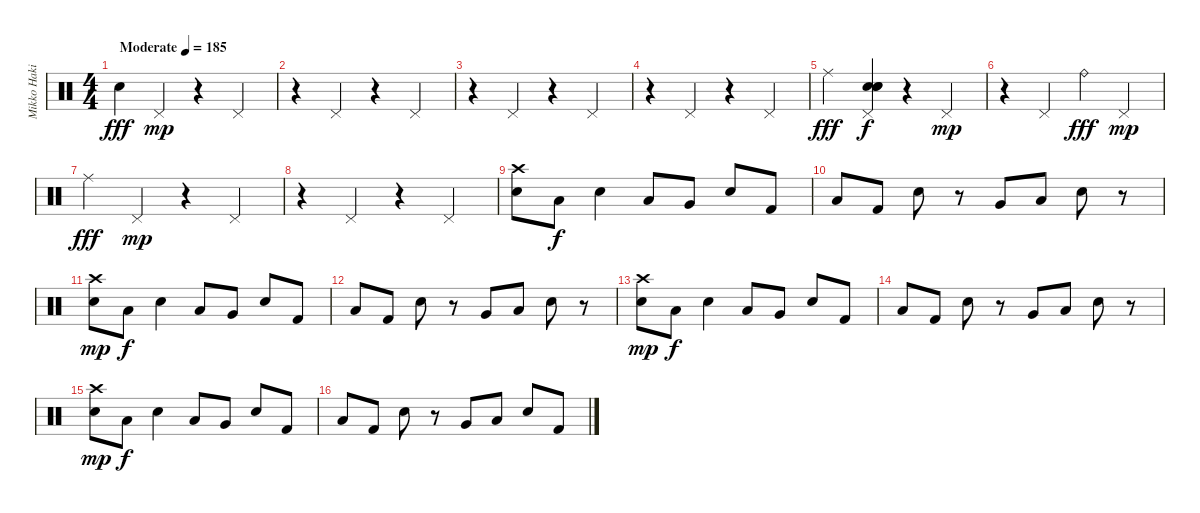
\track ("Mikko Hakila" "Mikko Haki") {instrument percussion}
\staff {score}
\articulation defaults
\ts (4 4)
\tempo (185 "Moderate")
\clef neutral
\ks c "Snare (hit) 2".4{dy fff} "Pedal Hi-Hat (hit)".4{dy mp}
r.4 "Pedal Hi-Hat (hit)".4 |
r.4 "Pedal Hi-Hat (hit)".4 r.4 "Pedal Hi-Hat (hit)".4 |
r.4 "Pedal Hi-Hat (hit)".4 r.4 "Pedal Hi-Hat (hit)".4 |
r.4 "Pedal Hi-Hat (hit)".4 r.4 "Pedal Hi-Hat (hit)".4 |
"Ride (middle)".4{dy fff} ("Pedal Hi-Hat (hit)" "Snare (hit)" "Snare (hit)" "Snare (hit)").4{dy f} r.4 "Pedal Hi-Hat (hit)".4{dy mp} |
r.4 "Pedal Hi-Hat (hit)".4 "Ride (bell)".4{dy fff} "Pedal Hi-Hat (hit)".4{dy mp} |
"Ride (middle)".4{dy fff} "Pedal Hi-Hat (hit)".4{dy mp} r.4 "Pedal Hi-Hat (hit)".4 |
r.4 "Pedal Hi-Hat (hit)".4 r.4 "Pedal Hi-Hat (hit)".4 |
("Crash high (hit)" "Snare (hit) 2").8 "Low Floor Tom (hit)".8{dy f} "Snare (hit) 2".4 "Low Tom (hit)".8 "Very Low Tom (hit)".8 "Snare (hit) 2".8 "Kick (hit) 2".8 |
"Low Tom (hit)".8 "Kick (hit) 2".8 "Snare (hit) 2".8 r.8 "Very Low Tom (hit)".8 "Low Floor Tom (hit)".8 "Snare (hit) 2".8 r.8 |
("Crash high (hit)" "Snare (hit) 2").8{dy mp} "Low Floor Tom (hit)".8{dy f} "Snare (hit) 2".4 "Low Tom (hit)".8 "Very Low Tom (hit)".8 "Snare (hit) 2".8 "Kick (hit) 2".8 |
"Low Tom (hit)".8 "Kick (hit) 2".8 "Snare (hit) 2".8 r.8 "Very Low Tom (hit)".8 "Low Floor Tom (hit)".8 "Snare (hit) 2".8 r.8 |
("Crash high (hit)" "Snare (hit) 2").8{dy mp} "Low Floor Tom (hit)".8{dy f} "Snare (hit) 2".4 "Low Tom (hit)".8 "Very Low Tom (hit)".8 "Snare (hit) 2".8 "Kick (hit) 2".8 |
"Low Tom (hit)".8 "Kick (hit) 2".8 "Snare (hit) 2".8 r.8 "Very Low Tom (hit)".8 "Low Floor Tom (hit)".8 "Snare (hit) 2".8 r.8 |
("Crash high (hit)" "Snare (hit) 2").8{dy mp} "Low Floor Tom (hit)".8{dy f} "Snare (hit) 2".4 "Low Tom (hit)".8 "Very Low Tom (hit)".8 "Snare (hit) 2".8 "Kick (hit) 2".8 |
"Low Tom (hit)".8 "Kick (hit) 2".8 "Snare (hit) 2".8 r.8 "Very Low Tom (hit)".8 "Low Floor Tom (hit)".8 "Snare (hit) 2".8 "Kick (hit) 2".8
